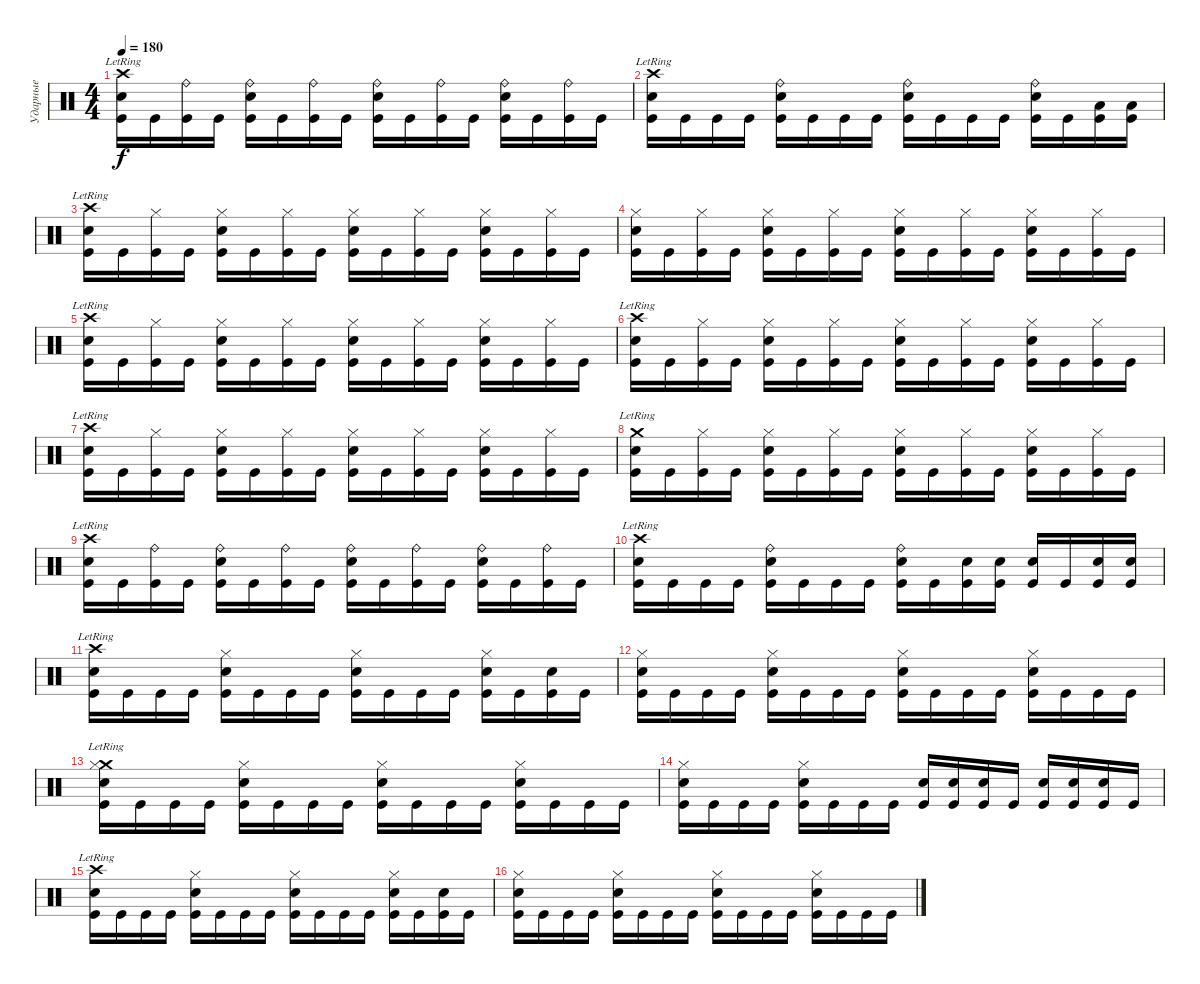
\track ("Ударные" "Ударные") {instrument percussion}
\staff {score}
\articulation defaults
\ts (4 4)
\tempo 180
\clef neutral
\ks c
("Crash high (hit)"{lr} "Electric Snare (hit)" "Kick (hit)").16{dy f} "Kick (hit)".16 ("Ride (bell)" "Kick (hit)").16 "Kick (hit)".16 ("Ride (bell)" "Electric Snare (hit)" "Kick (hit)").16 "Kick (hit)".16 ("Ride (bell)" "Kick (hit)").16 "Kick (hit)".16 ("Ride (bell)" "Electric Snare (hit)" "Kick (hit)").16 "Kick (hit)".16 ("Ride (bell)" "Kick (hit)").16 "Kick (hit)".16 ("Ride (bell)" "Electric Snare (hit)" "Kick (hit)").16 "Kick (hit)".16 ("Ride (bell)" "Kick (hit)").16 "Kick (hit)".16 |
("Crash high (hit)"{lr} "Electric Snare (hit)" "Kick (hit)").16 "Kick (hit)".16 "Kick (hit)".16 "Kick (hit)".16 ("Ride (bell)" "Electric Snare (hit)" "Kick (hit)").16 "Kick (hit)".16 "Kick (hit)".16 "Kick (hit)".16 ("Ride (bell)" "Electric Snare (hit)" "Kick (hit)").16 "Kick (hit)".16 "Kick (hit)".16 "Kick (hit)".16 ("Ride (bell)" "Electric Snare (hit)" "Kick (hit)").16 "Kick (hit)".16 ("Low Tom (hit)" "Kick (hit)").16 ("Low Tom (hit)" "Kick (hit)").16 |
("Crash high (hit)"{lr} "Electric Snare (hit)" "Kick (hit)").16 "Kick (hit)".16 ("Hi-Hat (closed)" "Kick (hit)").16 "Kick (hit)".16 ("Hi-Hat (closed)" "Electric Snare (hit)" "Kick (hit)").16 "Kick (hit)".16 ("Hi-Hat (closed)" "Kick (hit)").16 "Kick (hit)".16 ("Hi-Hat (closed)" "Electric Snare (hit)" "Kick (hit)").16 "Kick (hit)".16 ("Hi-Hat (closed)" "Kick (hit)").16 "Kick (hit)".16 ("Hi-Hat (closed)" "Electric Snare (hit)" "Kick (hit)").16 "Kick (hit)".16 ("Hi-Hat (closed)" "Kick (hit)").16 "Kick (hit)".16 |
("Hi-Hat (closed)" "Electric Snare (hit)" "Kick (hit)").16 "Kick (hit)".16 ("Hi-Hat (closed)" "Kick (hit)").16 "Kick (hit)".16 ("Hi-Hat (closed)" "Electric Snare (hit)" "Kick (hit)").16 "Kick (hit)".16 ("Hi-Hat (closed)" "Kick (hit)").16 "Kick (hit)".16 ("Hi-Hat (closed)" "Electric Snare (hit)" "Kick (hit)").16 "Kick (hit)".16 ("Hi-Hat (closed)" "Kick (hit)").16 "Kick (hit)".16 ("Hi-Hat (closed)" "Electric Snare (hit)" "Kick (hit)").16 "Kick (hit)".16 ("Hi-Hat (closed)" "Kick (hit)").16 "Kick (hit)".16 |
("Crash high (hit)"{lr} "Electric Snare (hit)" "Kick (hit)").16 "Kick (hit)".16 ("Hi-Hat (closed)" "Kick (hit)").16 "Kick (hit)".16 ("Hi-Hat (closed)" "Electric Snare (hit)" "Kick (hit)").16 "Kick (hit)".16 ("Hi-Hat (closed)" "Kick (hit)").16 "Kick (hit)".16 ("Hi-Hat (closed)" "Electric Snare (hit)" "Kick (hit)").16 "Kick (hit)".16 ("Hi-Hat (closed)" "Kick (hit)").16 "Kick (hit)".16 ("Hi-Hat (closed)" "Electric Snare (hit)" "Kick (hit)").16 "Kick (hit)".16 ("Hi-Hat (closed)" "Kick (hit)").16 "Kick (hit)".16 |
("Crash high (hit)"{lr} "Electric Snare (hit)" "Kick (hit)").16 "Kick (hit)".16 ("Hi-Hat (closed)" "Kick (hit)").16 "Kick (hit)".16 ("Hi-Hat (closed)" "Electric Snare (hit)" "Kick (hit)").16 "Kick (hit)".16 ("Hi-Hat (closed)" "Kick (hit)").16 "Kick (hit)".16 ("Hi-Hat (closed)" "Electric Snare (hit)" "Kick (hit)").16 "Kick (hit)".16 ("Hi-Hat (closed)" "Kick (hit)").16 "Kick (hit)".16 ("Hi-Hat (closed)" "Electric Snare (hit)" "Kick (hit)").16 "Kick (hit)".16 ("Hi-Hat (closed)" "Kick (hit)").16 "Kick (hit)".16 |
("Crash high (hit)"{lr} "Electric Snare (hit)" "Kick (hit)").16 "Kick (hit)".16 ("Hi-Hat (closed)" "Kick (hit)").16 "Kick (hit)".16 ("Hi-Hat (closed)" "Electric Snare (hit)" "Kick (hit)").16 "Kick (hit)".16 ("Hi-Hat (closed)" "Kick (hit)").16 "Kick (hit)".16 ("Hi-Hat (closed)" "Electric Snare (hit)" "Kick (hit)").16 "Kick (hit)".16 ("Hi-Hat (closed)" "Kick (hit)").16 "Kick (hit)".16 ("Hi-Hat (closed)" "Electric Snare (hit)" "Kick (hit)").16 "Kick (hit)".16 ("Hi-Hat (closed)" "Kick (hit)").16 "Kick (hit)".16 |
("Crash medium (hit)"{lr} "Electric Snare (hit)" "Kick (hit)").16 "Kick (hit)".16 ("Hi-Hat (closed)" "Kick (hit)").16 "Kick (hit)".16 ("Hi-Hat (closed)" "Electric Snare (hit)" "Kick (hit)").16 "Kick (hit)".16 ("Hi-Hat (closed)" "Kick (hit)").16 "Kick (hit)".16 ("Hi-Hat (closed)" "Electric Snare (hit)" "Kick (hit)").16 "Kick (hit)".16 ("Hi-Hat (closed)" "Kick (hit)").16 "Kick (hit)".16 ("Hi-Hat (closed)" "Electric Snare (hit)" "Kick (hit)").16 "Kick (hit)".16 ("Hi-Hat (closed)" "Kick (hit)").16 "Kick (hit)".16 |
("Crash high (hit)"{lr} "Electric Snare (hit)" "Kick (hit)").16 "Kick (hit)".16 ("Ride (bell)" "Kick (hit)").16 "Kick (hit)".16 ("Ride (bell)" "Electric Snare (hit)" "Kick (hit)").16 "Kick (hit)".16 ("Ride (bell)" "Kick (hit)").16 "Kick (hit)".16 ("Ride (bell)" "Electric Snare (hit)" "Kick (hit)").16 "Kick (hit)".16 ("Ride (bell)" "Kick (hit)").16 "Kick (hit)".16 ("Ride (bell)" "Electric Snare (hit)" "Kick (hit)").16 "Kick (hit)".16 ("Ride (bell)" "Kick (hit)").16 "Kick (hit)".16 |
("Crash high (hit)"{lr} "Electric Snare (hit)" "Kick (hit)").16 "Kick (hit)".16 "Kick (hit)".16 "Kick (hit)".16 ("Ride (bell)" "Electric Snare (hit)" "Kick (hit)").16 "Kick (hit)".16 "Kick (hit)".16 "Kick (hit)".16 ("Ride (bell)" "Electric Snare (hit)" "Kick (hit)").16 "Kick (hit)".16 ("Electric Snare (hit)" "Kick (hit)").16 ("Electric Snare (hit)" "Kick (hit)").16 ("Electric Snare (hit)" "Kick (hit)").16 "Kick (hit)".16 ("Electric Snare (hit)" "Kick (hit)").16 ("Electric Snare (hit)" "Kick (hit)").16 |
("Crash high (hit)"{lr} "Electric Snare (hit)" "Kick (hit)").16 "Kick (hit)".16 "Kick (hit)".16 "Kick (hit)".16 ("Hi-Hat (closed)" "Electric Snare (hit)" "Kick (hit)").16 "Kick (hit)".16 "Kick (hit)".16 "Kick (hit)".16 ("Hi-Hat (closed)" "Electric Snare (hit)" "Kick (hit)").16 "Kick (hit)".16 "Kick (hit)".16 "Kick (hit)".16 ("Hi-Hat (closed)" "Electric Snare (hit)" "Kick (hit)").16 "Kick (hit)".16 ("Electric Snare (hit)" "Kick (hit)").16 "Kick (hit)".16 |
("Hi-Hat (closed)" "Electric Snare (hit)" "Kick (hit)").16 "Kick (hit)".16 "Kick (hit)".16 "Kick (hit)".16 ("Hi-Hat (closed)" "Electric Snare (hit)" "Kick (hit)").16 "Kick (hit)".16 "Kick (hit)".16 "Kick (hit)".16 ("Hi-Hat (closed)" "Electric Snare (hit)" "Kick (hit)").16 "Kick (hit)".16 "Kick (hit)".16 "Kick (hit)".16 ("Hi-Hat (closed)" "Electric Snare (hit)" "Kick (hit)").16 "Kick (hit)".16 "Kick (hit)".16 "Kick (hit)".16 |
("Crash medium (hit)"{lr} "Hi-Hat (closed)" "Electric Snare (hit)" "Kick (hit)").16 "Kick (hit)".16 "Kick (hit)".16 "Kick (hit)".16 ("Hi-Hat (closed)" "Electric Snare (hit)" "Kick (hit)").16 "Kick (hit)".16 "Kick (hit)".16 "Kick (hit)".16 ("Hi-Hat (closed)" "Electric Snare (hit)" "Kick (hit)").16 "Kick (hit)".16 "Kick (hit)".16 "Kick (hit)".16 ("Hi-Hat (closed)" "Electric Snare (hit)" "Kick (hit)").16 "Kick (hit)".16 "Kick (hit)".16 "Kick (hit)".16 |
("Hi-Hat (closed)" "Electric Snare (hit)" "Kick (hit)").16 "Kick (hit)".16 "Kick (hit)".16 "Kick (hit)".16 ("Hi-Hat (closed)" "Electric Snare (hit)" "Kick (hit)").16 "Kick (hit)".16 "Kick (hit)".16 "Kick (hit)".16 ("Electric Snare (hit)" "Kick (hit)").16 ("Electric Snare (hit)" "Kick (hit)").16 ("Electric Snare (hit)" "Kick (hit)").16 "Kick (hit)".16 ("Electric Snare (hit)" "Kick (hit)").16 ("Electric Snare (hit)" "Kick (hit)").16 ("Electric Snare (hit)" "Kick (hit)").16 "Kick (hit)".16 |
("Crash high (hit)"{lr} "Electric Snare (hit)" "Kick (hit)").16 "Kick (hit)".16 "Kick (hit)".16 "Kick (hit)".16 ("Hi-Hat (closed)" "Electric Snare (hit)" "Kick (hit)").16 "Kick (hit)".16 "Kick (hit)".16 "Kick (hit)".16 ("Hi-Hat (closed)" "Electric Snare (hit)" "Kick (hit)").16 "Kick (hit)".16 "Kick (hit)".16 "Kick (hit)".16 ("Hi-Hat (closed)" "Electric Snare (hit)" "Kick (hit)").16 "Kick (hit)".16 ("Electric Snare (hit)" "Kick (hit)").16 "Kick (hit)".16 |
("Hi-Hat (closed)" "Electric Snare (hit)" "Kick (hit)").16 "Kick (hit)".16 "Kick (hit)".16 "Kick (hit)".16 ("Hi-Hat (closed)" "Electric Snare (hit)" "Kick (hit)").16 "Kick (hit)".16 "Kick (hit)".16 "Kick (hit)".16 ("Hi-Hat (closed)" "Electric Snare (hit)" "Kick (hit)").16 "Kick (hit)".16 "Kick (hit)".16 "Kick (hit)".16 ("Hi-Hat (closed)" "Electric Snare (hit)" "Kick (hit)").16 "Kick (hit)".16 "Kick (hit)".16 "Kick (hit)".16
